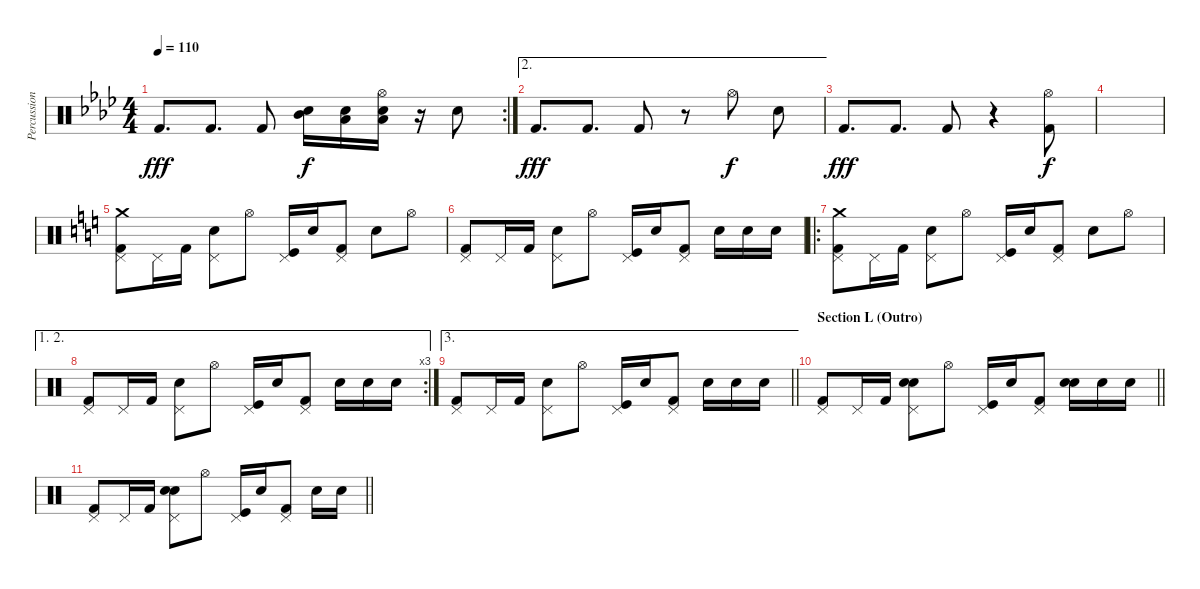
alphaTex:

\track ("Percussions" "Percussion") {instrument percussion}
\staff {score}
\articulation defaults
\rc 2
\ts (4 4)
\tempo 110
\clef neutral
\ks ab "Kick (hit) 2".8{d dy fff} "Kick (hit) 2".8{d} "Kick (hit) 2".8
("Mid Tom (hit)" "Electric Snare (hit)").16{dy f} ("Low Tom (hit)" "Electric Snare (hit)").16 ("Low Floor Tom (hit)" "Electric Snare (hit)" "Hi-Hat (open)").16 r.16 "Electric Snare (hit)".8 |
\ae 2 "Kick (hit) 2".8{d dy fff} "Kick (hit) 2".8{d} "Kick (hit) 2".8
r.8 "Hi-Hat (open)".8{dy f} "Electric Snare (hit)".8 |
"Kick (hit) 2".8{d dy fff} "Kick (hit) 2".8{d} "Kick (hit) 2".8 r.4 ("Hi-Hat (open)" "Kick (hit) 2").8{dy f} |
|
\ks c
("Kick (hit) 2" "Pedal Hi-Hat (hit)" "Crash medium (hit)").8 "Pedal Hi-Hat (hit)".16 "Kick (hit) 2".16 ("Electric Snare (hit)" "Pedal Hi-Hat (hit)").8 "Hi-Hat (open)".8 ("Kick (hit)" "Pedal Hi-Hat (hit)").16 "Electric Snare (hit)".16 ("Kick (hit) 2" "Pedal Hi-Hat (hit)").8 "Electric Snare (hit)".8 "Hi-Hat (open)".8 |
("Kick (hit) 2" "Pedal Hi-Hat (hit)").8 "Pedal Hi-Hat (hit)".16 "Kick (hit) 2".16 ("Electric Snare (hit)" "Pedal Hi-Hat (hit)").8 "Hi-Hat (open)".8 ("Kick (hit)" "Pedal Hi-Hat (hit)").16 "Electric Snare (hit)".16 ("Kick (hit) 2" "Pedal Hi-Hat (hit)").8 "Electric Snare (hit)".16 "Electric Snare (hit)".16 "Electric Snare (hit)".16 |
\ro
("Kick (hit) 2" "Pedal Hi-Hat (hit)" "Crash medium (hit)").8 "Pedal Hi-Hat (hit)".16 "Kick (hit) 2".16 ("Electric Snare (hit)" "Pedal Hi-Hat (hit)").8 "Hi-Hat (open)".8 ("Kick (hit)" "Pedal Hi-Hat (hit)").16 "Electric Snare (hit)".16 ("Kick (hit) 2" "Pedal Hi-Hat (hit)").8 "Electric Snare (hit)".8 "Hi-Hat (open)".8 |
\ae (1 2)
\rc 3
("Kick (hit) 2" "Pedal Hi-Hat (hit)").8 "Pedal Hi-Hat (hit)".16 "Kick (hit) 2".16 ("Electric Snare (hit)" "Pedal Hi-Hat (hit)").8 "Hi-Hat (open)".8 ("Kick (hit)" "Pedal Hi-Hat (hit)").16 "Electric Snare (hit)".16 ("Kick (hit) 2" "Pedal Hi-Hat (hit)").8 "Electric Snare (hit)".16 "Electric Snare (hit)".16 "Electric Snare (hit)".16 |
\ae 3
\barLineRight lightlight
("Kick (hit) 2" "Pedal Hi-Hat (hit)").8 "Pedal Hi-Hat (hit)".16 "Kick (hit) 2".16 ("Electric Snare (hit)" "Pedal Hi-Hat (hit)").8 "Hi-Hat (open)".8 ("Kick (hit)" "Pedal Hi-Hat (hit)").16 "Electric Snare (hit)".16 ("Kick (hit) 2" "Pedal Hi-Hat (hit)").8 "Electric Snare (hit)".16 "Electric Snare (hit)".16 "Electric Snare (hit)".16 |
\section ("" "Section L (Outro)")
\barLineRight lightlight
("Kick (hit) 2" "Pedal Hi-Hat (hit)").8 "Pedal Hi-Hat (hit)".16 "Kick (hit) 2".16 ("Electric Snare (hit)" "Pedal Hi-Hat (hit)" "Hand Clap (hit)").8 "Hi-Hat (open)".8 ("Kick (hit)" "Pedal Hi-Hat (hit)").16 "Electric Snare (hit)".16 ("Kick (hit) 2" "Pedal Hi-Hat (hit)").8 ("Electric Snare (hit)" "Hand Clap (hit)").16 "Electric Snare (hit)".16 "Electric Snare (hit)".16 |
\barLineRight lightlight
("Kick (hit) 2" "Pedal Hi-Hat (hit)").8 "Pedal Hi-Hat (hit)".16 "Kick (hit) 2".16 ("Electric Snare (hit)" "Pedal Hi-Hat (hit)" "Hand Clap (hit)").8 "Hi-Hat (open)".8 ("Kick (hit)" "Pedal Hi-Hat (hit)").16 "Electric Snare (hit)".16 ("Kick (hit) 2" "Pedal Hi-Hat (hit)").8 "Electric Snare (hit)".16 "Electric Snare (hit)".16
